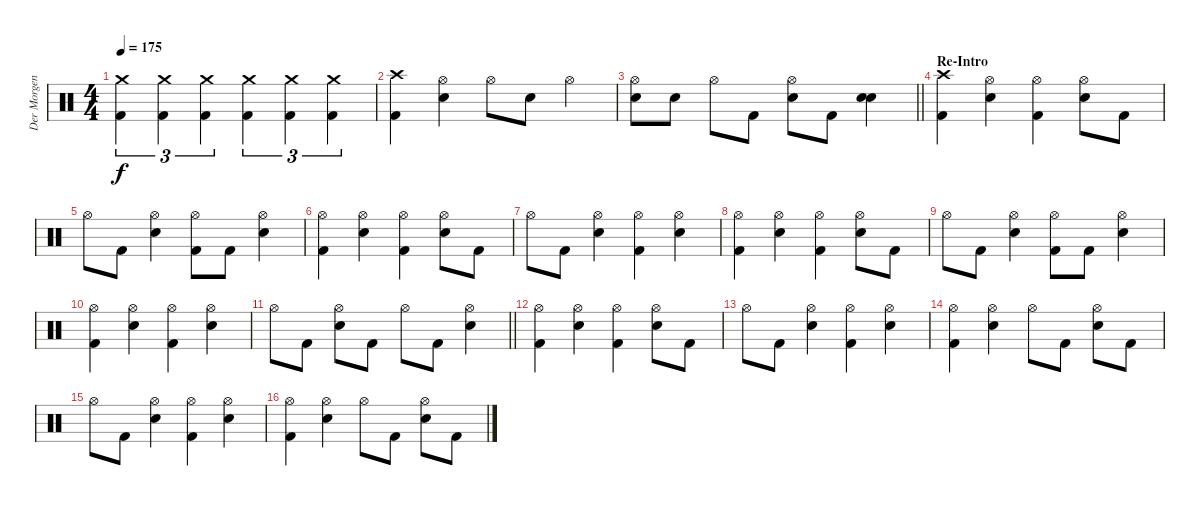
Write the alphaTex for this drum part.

\track ("Der Morgenstern" "Der Morgen") {instrument percussion}
\staff {score}
\articulation defaults
\ts (4 4)
\tempo 175
\clef neutral
\ks c
("Crash medium (hit)" "Kick (hit) 2").4{tu (3 2) dy f} ("Crash medium (hit)" "Kick (hit) 2").4{tu (3 2)} ("Crash medium (hit)" "Kick (hit) 2").4{tu (3 2)} ("Crash medium (hit)" "Kick (hit) 2").4{tu (3 2)} ("Crash medium (hit)" "Kick (hit) 2").4{tu (3 2)} ("Crash medium (hit)" "Kick (hit) 2").4{tu (3 2)} |
("Crash high (hit)" "Kick (hit) 2").4 ("Hi-Hat (open)" "Electric Snare (hit)").4 "Hi-Hat (open)".8 "Electric Snare (hit)".8 "Hi-Hat (open)".4 |
\barLineRight lightlight
("Hi-Hat (open)" "Electric Snare (hit)").8 "Electric Snare (hit)".8 "Hi-Hat (open)".8 "Kick (hit) 2".8 ("Hi-Hat (open)" "Electric Snare (hit)").8 "Kick (hit) 2".8 ("Electric Snare (hit)" "Electric Snare (hit)").4 |
\section ("" "Re-Intro")
("Crash high (hit)" "Kick (hit) 2").4 ("Hi-Hat (open)" "Electric Snare (hit)").4 ("Hi-Hat (open)" "Kick (hit) 2").4 ("Hi-Hat (open)" "Electric Snare (hit)").8 "Kick (hit) 2".8 |
"Hi-Hat (open)".8 "Kick (hit) 2".8 ("Hi-Hat (open)" "Electric Snare (hit)").4 ("Hi-Hat (open)" "Kick (hit) 2").8 "Kick (hit) 2".8 ("Hi-Hat (open)" "Electric Snare (hit)").4 |
("Hi-Hat (open)" "Kick (hit) 2").4 ("Hi-Hat (open)" "Electric Snare (hit)").4 ("Hi-Hat (open)" "Kick (hit) 2").4 ("Hi-Hat (open)" "Electric Snare (hit)").8 "Kick (hit) 2".8 |
"Hi-Hat (open)".8 "Kick (hit) 2".8 ("Hi-Hat (open)" "Electric Snare (hit)").4 ("Hi-Hat (open)" "Kick (hit) 2").4 ("Hi-Hat (open)" "Electric Snare (hit)").4 |
("Hi-Hat (open)" "Kick (hit) 2").4 ("Hi-Hat (open)" "Electric Snare (hit)").4 ("Hi-Hat (open)" "Kick (hit) 2").4 ("Hi-Hat (open)" "Electric Snare (hit)").8 "Kick (hit) 2".8 |
"Hi-Hat (open)".8 "Kick (hit) 2".8 ("Hi-Hat (open)" "Electric Snare (hit)").4 ("Hi-Hat (open)" "Kick (hit) 2").8 "Kick (hit) 2".8 ("Hi-Hat (open)" "Electric Snare (hit)").4 |
("Hi-Hat (open)" "Kick (hit) 2").4 ("Hi-Hat (open)" "Electric Snare (hit)").4 ("Hi-Hat (open)" "Kick (hit) 2").4 ("Hi-Hat (open)" "Electric Snare (hit)").4 |
\barLineRight lightlight "Hi-Hat (open)".8 "Kick (hit) 2".8
("Hi-Hat (open)" "Electric Snare (hit)").8 "Kick (hit) 2".8 "Hi-Hat (open)".8 "Kick (hit) 2".8 ("Hi-Hat (open)" "Electric Snare (hit)").4 |
("Hi-Hat (open)" "Kick (hit) 2").4 ("Hi-Hat (open)" "Electric Snare (hit)").4 ("Hi-Hat (open)" "Kick (hit) 2").4 ("Hi-Hat (open)" "Electric Snare (hit)").8 "Kick (hit) 2".8 |
"Hi-Hat (open)".8 "Kick (hit) 2".8 ("Hi-Hat (open)" "Electric Snare (hit)").4 ("Hi-Hat (open)" "Kick (hit) 2").4 ("Hi-Hat (open)" "Electric Snare (hit)").4 |
("Hi-Hat (open)" "Kick (hit) 2").4 ("Hi-Hat (open)" "Electric Snare (hit)").4 "Hi-Hat (open)".8 "Kick (hit) 2".8 ("Hi-Hat (open)" "Electric Snare (hit)").8 "Kick (hit) 2".8 |
"Hi-Hat (open)".8 "Kick (hit) 2".8 ("Hi-Hat (open)" "Electric Snare (hit)").4 ("Hi-Hat (open)" "Kick (hit) 2").4 ("Hi-Hat (open)" "Electric Snare (hit)").4 |
("Hi-Hat (open)" "Kick (hit) 2").4 ("Hi-Hat (open)" "Electric Snare (hit)").4 "Hi-Hat (open)".8 "Kick (hit) 2".8 ("Hi-Hat (open)" "Electric Snare (hit)").8 "Kick (hit) 2".8
